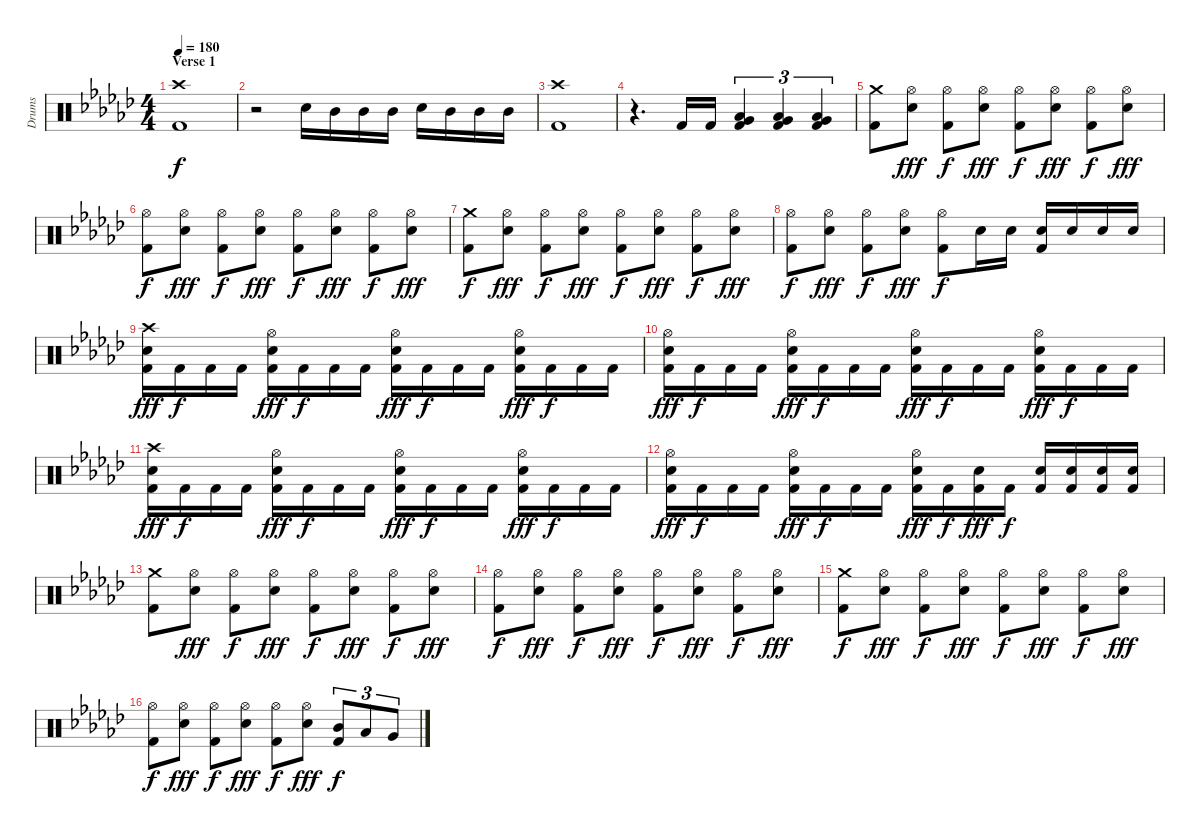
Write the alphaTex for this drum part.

\track ("Drums" "Drums") {instrument percussion}
\staff {score}
\articulation defaults
\ts (4 4)
\section ("" "Verse 1")
\tempo 180
\clef neutral
\ks ebminor
("Crash high (hit)" "Kick (hit) 2").1{dy f} |
r.2 "Snare (hit) 2".16 "Mid Tom (hit)".16 "Mid Tom (hit)".16 "Mid Tom (hit)".16 "Snare (hit) 2".16 "Mid Tom (hit)".16 "Mid Tom (hit)".16 "Mid Tom (hit)".16 |
("Crash high (hit)" "Kick (hit) 2").1 |
r.4{d} "Kick (hit) 2".16 "Kick (hit) 2".16 ("Low Tom (hit)" "Very Low Tom (hit)" "Kick (hit) 2").4{tu (3 2)} ("Low Tom (hit)" "Very Low Tom (hit)" "Kick (hit) 2").4{tu (3 2)} ("Low Tom (hit)" "Very Low Tom (hit)" "Kick (hit) 2").4{tu (3 2)} |
("Crash medium (hit)" "Kick (hit) 2").8 ("Hi-Hat (open)" "Snare (hit) 2").8{dy fff} ("Hi-Hat (open)" "Kick (hit) 2").8{dy f} ("Hi-Hat (open)" "Snare (hit) 2").8{dy fff} ("Hi-Hat (open)" "Kick (hit) 2").8{dy f} ("Hi-Hat (open)" "Snare (hit) 2").8{dy fff} ("Hi-Hat (open)" "Kick (hit) 2").8{dy f} ("Hi-Hat (open)" "Snare (hit) 2").8{dy fff} |
("Hi-Hat (open)" "Kick (hit) 2").8{dy f} ("Hi-Hat (open)" "Snare (hit) 2").8{dy fff} ("Hi-Hat (open)" "Kick (hit) 2").8{dy f} ("Hi-Hat (open)" "Snare (hit) 2").8{dy fff} ("Hi-Hat (open)" "Kick (hit) 2").8{dy f} ("Hi-Hat (open)" "Snare (hit) 2").8{dy fff} ("Hi-Hat (open)" "Kick (hit) 2").8{dy f} ("Hi-Hat (open)" "Snare (hit) 2").8{dy fff} |
("Crash medium (hit)" "Kick (hit) 2").8{dy f} ("Hi-Hat (open)" "Snare (hit) 2").8{dy fff} ("Hi-Hat (open)" "Kick (hit) 2").8{dy f} ("Hi-Hat (open)" "Snare (hit) 2").8{dy fff} ("Hi-Hat (open)" "Kick (hit) 2").8{dy f} ("Hi-Hat (open)" "Snare (hit) 2").8{dy fff} ("Hi-Hat (open)" "Kick (hit) 2").8{dy f} ("Hi-Hat (open)" "Snare (hit) 2").8{dy fff} |
("Hi-Hat (open)" "Kick (hit) 2").8{dy f} ("Hi-Hat (open)" "Snare (hit) 2").8{dy fff} ("Hi-Hat (open)" "Kick (hit) 2").8{dy f} ("Hi-Hat (open)" "Snare (hit) 2").8{dy fff} ("Hi-Hat (open)" "Kick (hit) 2").8{dy f} "Snare (hit) 2".16 "Snare (hit) 2".16 ("Snare (hit) 2" "Kick (hit) 2").16 "Snare (hit) 2".16 "Snare (hit) 2".16 "Snare (hit) 2".16 |
("Crash high (hit)" "Snare (hit) 2" "Kick (hit) 2").16{dy fff} "Kick (hit) 2".16{dy f} "Kick (hit) 2".16 "Kick (hit) 2".16 ("Hi-Hat (open)" "Snare (hit) 2" "Kick (hit) 2").16{dy fff} "Kick (hit) 2".16{dy f} "Kick (hit) 2".16 "Kick (hit) 2".16 ("Hi-Hat (open)" "Snare (hit) 2" "Kick (hit) 2").16{dy fff} "Kick (hit) 2".16{dy f} "Kick (hit) 2".16 "Kick (hit) 2".16 ("Hi-Hat (open)" "Snare (hit) 2" "Kick (hit) 2").16{dy fff} "Kick (hit) 2".16{dy f} "Kick (hit) 2".16 "Kick (hit) 2".16 |
("Hi-Hat (open)" "Snare (hit) 2" "Kick (hit) 2").16{dy fff} "Kick (hit) 2".16{dy f} "Kick (hit) 2".16 "Kick (hit) 2".16 ("Hi-Hat (open)" "Snare (hit) 2" "Kick (hit) 2").16{dy fff} "Kick (hit) 2".16{dy f} "Kick (hit) 2".16 "Kick (hit) 2".16 ("Hi-Hat (open)" "Snare (hit) 2" "Kick (hit) 2").16{dy fff} "Kick (hit) 2".16{dy f} "Kick (hit) 2".16 "Kick (hit) 2".16 ("Hi-Hat (open)" "Snare (hit) 2" "Kick (hit) 2").16{dy fff} "Kick (hit) 2".16{dy f} "Kick (hit) 2".16 "Kick (hit) 2".16 |
("Crash high (hit)" "Snare (hit) 2" "Kick (hit) 2").16{dy fff} "Kick (hit) 2".16{dy f} "Kick (hit) 2".16 "Kick (hit) 2".16 ("Hi-Hat (open)" "Snare (hit) 2" "Kick (hit) 2").16{dy fff} "Kick (hit) 2".16{dy f} "Kick (hit) 2".16 "Kick (hit) 2".16 ("Hi-Hat (open)" "Snare (hit) 2" "Kick (hit) 2").16{dy fff} "Kick (hit) 2".16{dy f} "Kick (hit) 2".16 "Kick (hit) 2".16 ("Hi-Hat (open)" "Snare (hit) 2" "Kick (hit) 2").16{dy fff} "Kick (hit) 2".16{dy f} "Kick (hit) 2".16 "Kick (hit) 2".16 |
("Hi-Hat (open)" "Snare (hit) 2" "Kick (hit) 2").16{dy fff} "Kick (hit) 2".16{dy f} "Kick (hit) 2".16 "Kick (hit) 2".16 ("Hi-Hat (open)" "Snare (hit) 2" "Kick (hit) 2").16{dy fff} "Kick (hit) 2".16{dy f} "Kick (hit) 2".16 "Kick (hit) 2".16 ("Hi-Hat (open)" "Snare (hit) 2" "Kick (hit) 2").16{dy fff} "Kick (hit) 2".16{dy f} ("Snare (hit) 2" "Kick (hit) 2").16{dy fff} "Kick (hit) 2".16{dy f} ("Snare (hit) 2" "Kick (hit) 2").16 ("Snare (hit) 2" "Kick (hit) 2").16 ("Snare (hit) 2" "Kick (hit) 2").16 ("Snare (hit) 2" "Kick (hit) 2").16 |
("Crash medium (hit)" "Kick (hit) 2").8 ("Hi-Hat (open)" "Snare (hit) 2").8{dy fff} ("Hi-Hat (open)" "Kick (hit) 2").8{dy f} ("Hi-Hat (open)" "Snare (hit) 2").8{dy fff} ("Hi-Hat (open)" "Kick (hit) 2").8{dy f} ("Hi-Hat (open)" "Snare (hit) 2").8{dy fff} ("Hi-Hat (open)" "Kick (hit) 2").8{dy f} ("Hi-Hat (open)" "Snare (hit) 2").8{dy fff} |
("Hi-Hat (open)" "Kick (hit) 2").8{dy f} ("Hi-Hat (open)" "Snare (hit) 2").8{dy fff} ("Hi-Hat (open)" "Kick (hit) 2").8{dy f} ("Hi-Hat (open)" "Snare (hit) 2").8{dy fff} ("Hi-Hat (open)" "Kick (hit) 2").8{dy f} ("Hi-Hat (open)" "Snare (hit) 2").8{dy fff} ("Hi-Hat (open)" "Kick (hit) 2").8{dy f} ("Hi-Hat (open)" "Snare (hit) 2").8{dy fff} |
("Crash medium (hit)" "Kick (hit) 2").8{dy f} ("Hi-Hat (open)" "Snare (hit) 2").8{dy fff} ("Hi-Hat (open)" "Kick (hit) 2").8{dy f} ("Hi-Hat (open)" "Snare (hit) 2").8{dy fff} ("Hi-Hat (open)" "Kick (hit) 2").8{dy f} ("Hi-Hat (open)" "Snare (hit) 2").8{dy fff} ("Hi-Hat (open)" "Kick (hit) 2").8{dy f} ("Hi-Hat (open)" "Snare (hit) 2").8{dy fff} |
("Hi-Hat (open)" "Kick (hit) 2").8{dy f} ("Hi-Hat (open)" "Snare (hit) 2").8{dy fff} ("Hi-Hat (open)" "Kick (hit) 2").8{dy f} ("Hi-Hat (open)" "Snare (hit) 2").8{dy fff} ("Hi-Hat (open)" "Kick (hit) 2").8{dy f} ("Hi-Hat (open)" "Snare (hit) 2").8{dy fff} ("Mid Tom (hit)" "Kick (hit) 2").8{tu (3 2) dy f} "Low Tom (hit)".8{tu (3 2)} "Very Low Tom (hit)".8{tu (3 2)}
